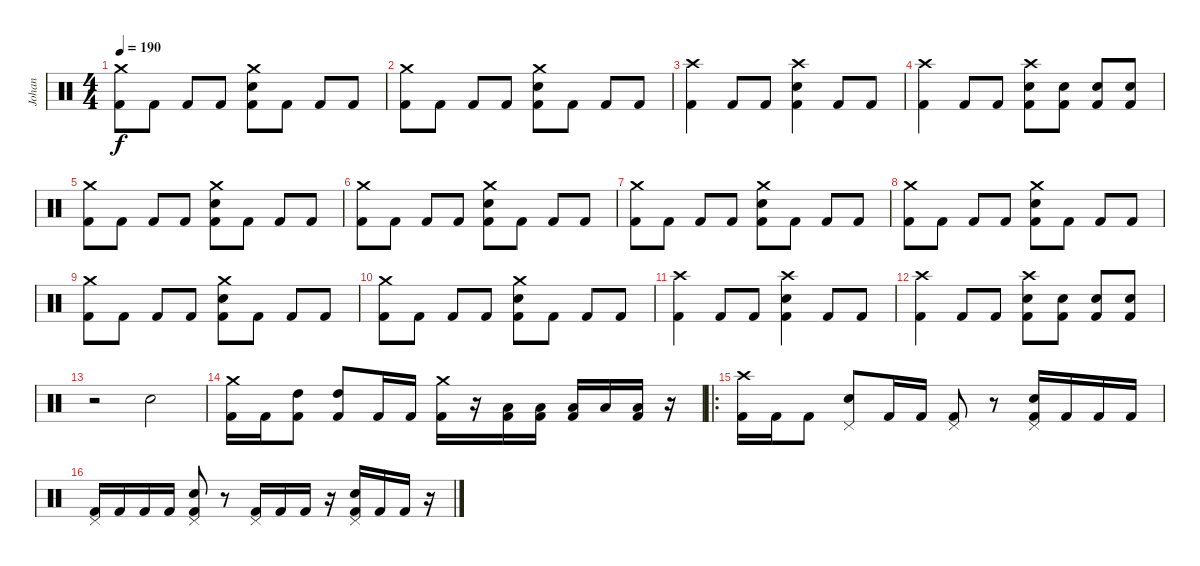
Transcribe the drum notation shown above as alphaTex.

\track ("Johan" "Johan") {instrument percussion}
\staff {score}
\articulation defaults
\ts (4 4)
\tempo 190
\clef neutral
\ks c
("Crash medium (hit)" "Kick (hit) 2").8{dy f} "Kick (hit) 2".8 "Kick (hit) 2".8 "Kick (hit) 2".8 ("Electric Snare (hit)" "Crash medium (hit)" "Kick (hit) 2").8 "Kick (hit) 2".8 "Kick (hit) 2".8 "Kick (hit) 2".8 |
("Crash medium (hit)" "Kick (hit) 2").8 "Kick (hit) 2".8 "Kick (hit) 2".8 "Kick (hit) 2".8 ("Electric Snare (hit)" "Crash medium (hit)" "Kick (hit) 2").8 "Kick (hit) 2".8 "Kick (hit) 2".8 "Kick (hit) 2".8 |
("Crash high (hit)" "Kick (hit) 2").4 "Kick (hit) 2".8 "Kick (hit) 2".8 ("Electric Snare (hit)" "Crash high (hit)" "Kick (hit) 2").4 "Kick (hit) 2".8 "Kick (hit) 2".8 |
("Crash high (hit)" "Kick (hit) 2").4 "Kick (hit) 2".8 "Kick (hit) 2".8 ("Electric Snare (hit)" "Crash high (hit)" "Kick (hit) 2").8 ("Electric Snare (hit)" "Kick (hit) 2").8 ("Electric Snare (hit)" "Kick (hit) 2").8 ("Electric Snare (hit)" "Kick (hit) 2").8 |
("Crash medium (hit)" "Kick (hit) 2").8 "Kick (hit) 2".8 "Kick (hit) 2".8 "Kick (hit) 2".8 ("Electric Snare (hit)" "Crash medium (hit)" "Kick (hit) 2").8 "Kick (hit) 2".8 "Kick (hit) 2".8 "Kick (hit) 2".8 |
("Crash medium (hit)" "Kick (hit) 2").8 "Kick (hit) 2".8 "Kick (hit) 2".8 "Kick (hit) 2".8 ("Electric Snare (hit)" "Crash medium (hit)" "Kick (hit) 2").8 "Kick (hit) 2".8 "Kick (hit) 2".8 "Kick (hit) 2".8 |
("Crash medium (hit)" "Kick (hit) 2").8 "Kick (hit) 2".8 "Kick (hit) 2".8 "Kick (hit) 2".8 ("Electric Snare (hit)" "Crash medium (hit)" "Kick (hit) 2").8 "Kick (hit) 2".8 "Kick (hit) 2".8 "Kick (hit) 2".8 |
("Crash medium (hit)" "Kick (hit) 2").8 "Kick (hit) 2".8 "Kick (hit) 2".8 "Kick (hit) 2".8 ("Electric Snare (hit)" "Crash medium (hit)" "Kick (hit) 2").8 "Kick (hit) 2".8 "Kick (hit) 2".8 "Kick (hit) 2".8 |
("Crash medium (hit)" "Kick (hit) 2").8 "Kick (hit) 2".8 "Kick (hit) 2".8 "Kick (hit) 2".8 ("Electric Snare (hit)" "Crash medium (hit)" "Kick (hit) 2").8 "Kick (hit) 2".8 "Kick (hit) 2".8 "Kick (hit) 2".8 |
("Crash medium (hit)" "Kick (hit) 2").8 "Kick (hit) 2".8 "Kick (hit) 2".8 "Kick (hit) 2".8 ("Electric Snare (hit)" "Crash medium (hit)" "Kick (hit) 2").8 "Kick (hit) 2".8 "Kick (hit) 2".8 "Kick (hit) 2".8 |
("Crash high (hit)" "Kick (hit) 2").4 "Kick (hit) 2".8 "Kick (hit) 2".8 ("Electric Snare (hit)" "Crash high (hit)" "Kick (hit) 2").4 "Kick (hit) 2".8 "Kick (hit) 2".8 |
("Crash high (hit)" "Kick (hit) 2").4 "Kick (hit) 2".8 "Kick (hit) 2".8 ("Electric Snare (hit)" "Crash high (hit)" "Kick (hit) 2").8 ("Electric Snare (hit)" "Kick (hit) 2").8 ("Electric Snare (hit)" "Kick (hit) 2").8 ("Electric Snare (hit)" "Kick (hit) 2").8 |
r.2 "Electric Snare (hit)".2 |
("Crash medium (hit)" "Kick (hit) 2").16 "Kick (hit) 2".16 ("High Tom (hit)" "Kick (hit) 2").8 ("High Tom (hit)" "Kick (hit) 2").8 "Kick (hit) 2".16 "Kick (hit) 2".16 ("Crash medium (hit)" "Kick (hit) 2").16 r.16 ("Low Tom (hit)" "Kick (hit) 2").16 ("Low Tom (hit)" "Kick (hit) 2").16 ("Low Floor Tom (hit)" "Kick (hit) 2").16 "Low Floor Tom (hit)".16 ("Low Floor Tom (hit)" "Kick (hit) 2").16 r.16 |
\ro
("Crash high (hit)" "Kick (hit) 2").16 "Kick (hit) 2".16 "Kick (hit) 2".8 ("Electric Snare (hit)" "Pedal Hi-Hat (hit)").8 "Kick (hit) 2".16 "Kick (hit) 2".16 ("Pedal Hi-Hat (hit)" "Kick (hit) 2").8 r.8 ("Electric Snare (hit)" "Pedal Hi-Hat (hit)" "Kick (hit) 2").16 "Kick (hit) 2".16 "Kick (hit) 2".16 "Kick (hit) 2".16 |
("Pedal Hi-Hat (hit)" "Kick (hit) 2").16 "Kick (hit) 2".16 "Kick (hit) 2".16 "Kick (hit) 2".16 ("Electric Snare (hit)" "Pedal Hi-Hat (hit)" "Kick (hit) 2").8 r.8 ("Pedal Hi-Hat (hit)" "Kick (hit) 2").16 "Kick (hit) 2".16 "Kick (hit) 2".16 r.16 ("Electric Snare (hit)" "Pedal Hi-Hat (hit)" "Kick (hit) 2").16 "Kick (hit) 2".16 "Kick (hit) 2".16 r.16
